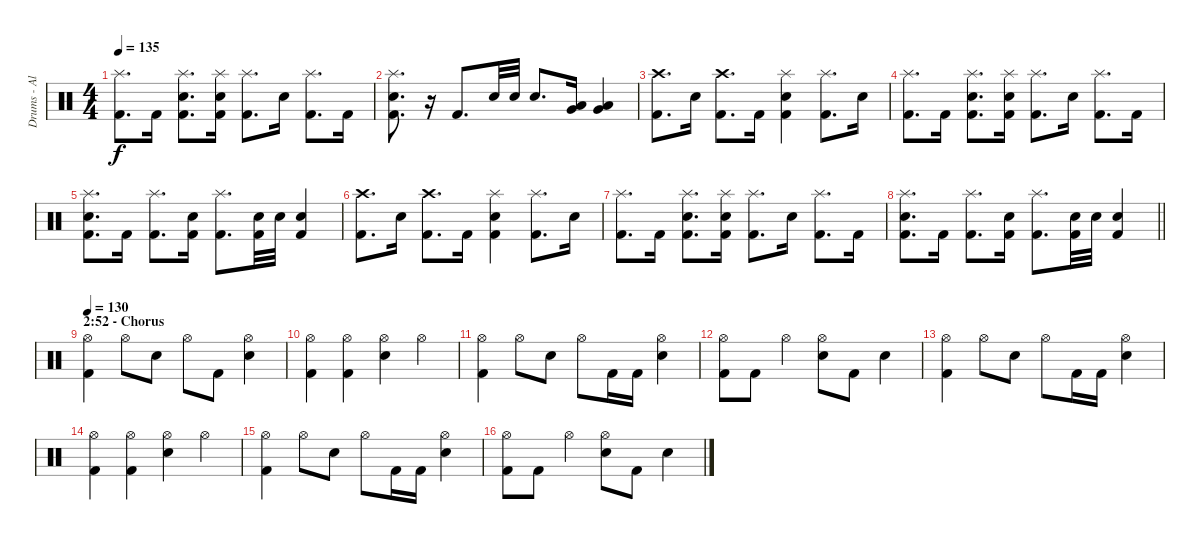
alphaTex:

\track ("Drums - Alex Wank" "Drums - Al") {instrument percussion}
\staff {score}
\articulation defaults
\ts (4 4)
\tempo 135
\clef neutral
\ks c
("Splash (hit)" "Kick (hit) 2").8{d dy f} "Kick (hit) 2".16 ("Splash (hit)" "Electric Snare (hit)" "Kick (hit) 2").8{d} ("Splash (hit)" "Electric Snare (hit)" "Kick (hit) 2").16 ("Splash (hit)" "Kick (hit) 2").8{d} "Electric Snare (hit)".16 ("Splash (hit)" "Kick (hit) 2").8{d} "Kick (hit) 2".16 |
("Splash (hit)" "Electric Snare (hit)" "Kick (hit) 2").8{d} r.16 "Kick (hit) 2".8{d} "Electric Snare (hit)".32 "Electric Snare (hit)".32 "Electric Snare (hit)".8{d} ("Very Low Tom (hit)" "Low Floor Tom (hit)").16 ("Very Low Tom (hit)" "Low Floor Tom (hit)").4 |
("Crash high (hit)" "Kick (hit) 2").8{d} "Electric Snare (hit)".16 ("Crash high (hit)" "Kick (hit) 2").8{d} "Kick (hit) 2".16 ("Splash (hit)" "Electric Snare (hit)" "Kick (hit) 2").4 ("Splash (hit)" "Kick (hit) 2").8{d} "Electric Snare (hit)".16 |
("Splash (hit)" "Kick (hit) 2").8{d} "Kick (hit) 2".16 ("Splash (hit)" "Electric Snare (hit)" "Kick (hit) 2").8{d} ("Splash (hit)" "Electric Snare (hit)" "Kick (hit) 2").16 ("Splash (hit)" "Kick (hit) 2").8{d} "Electric Snare (hit)".16 ("Splash (hit)" "Kick (hit) 2").8{d} "Kick (hit) 2".16 |
("Splash (hit)" "Electric Snare (hit)" "Kick (hit) 2").8{d} "Kick (hit) 2".16 ("Splash (hit)" "Kick (hit) 2").8{d} ("Electric Snare (hit)" "Kick (hit) 2").16 ("Splash (hit)" "Kick (hit) 2").8{d} ("Electric Snare (hit)" "Kick (hit) 2").32 "Electric Snare (hit)".32 ("Electric Snare (hit)" "Kick (hit) 2").4 |
("Crash high (hit)" "Kick (hit) 2").8{d} "Electric Snare (hit)".16 ("Crash high (hit)" "Kick (hit) 2").8{d} "Kick (hit) 2".16 ("Splash (hit)" "Electric Snare (hit)" "Kick (hit) 2").4 ("Splash (hit)" "Kick (hit) 2").8{d} "Electric Snare (hit)".16 |
("Splash (hit)" "Kick (hit) 2").8{d} "Kick (hit) 2".16 ("Splash (hit)" "Electric Snare (hit)" "Kick (hit) 2").8{d} ("Splash (hit)" "Electric Snare (hit)" "Kick (hit) 2").16 ("Splash (hit)" "Kick (hit) 2").8{d} "Electric Snare (hit)".16 ("Splash (hit)" "Kick (hit) 2").8{d} "Kick (hit) 2".16 |
\barLineRight lightlight
("Splash (hit)" "Electric Snare (hit)" "Kick (hit) 2").8{d} "Kick (hit) 2".16 ("Splash (hit)" "Kick (hit) 2").8{d} ("Electric Snare (hit)" "Kick (hit) 2").16 ("Splash (hit)" "Kick (hit) 2").8{d} ("Electric Snare (hit)" "Kick (hit) 2").32 "Electric Snare (hit)".32 ("Electric Snare (hit)" "Kick (hit) 2").4 |
\section ("" "2:52 - Chorus")
\tempo 130
("Hi-Hat (open)" "Kick (hit) 2").4 "Hi-Hat (open)".8 "Electric Snare (hit)".8 "Hi-Hat (open)".8 "Kick (hit) 2".8 ("Hi-Hat (open)" "Electric Snare (hit)").4 |
("Hi-Hat (open)" "Kick (hit) 2").4 ("Hi-Hat (open)" "Kick (hit) 2").4 ("Hi-Hat (open)" "Electric Snare (hit)").4 "Hi-Hat (open)".4 |
("Hi-Hat (open)" "Kick (hit) 2").4 "Hi-Hat (open)".8 "Electric Snare (hit)".8 "Hi-Hat (open)".8 "Kick (hit) 2".16 "Kick (hit) 2".16 ("Hi-Hat (open)" "Electric Snare (hit)").4 |
("Hi-Hat (open)" "Kick (hit) 2").8 "Kick (hit) 2".8 "Hi-Hat (open)".4 ("Hi-Hat (open)" "Electric Snare (hit)").8 "Kick (hit) 2".8 "Electric Snare (hit)".4 |
("Hi-Hat (open)" "Kick (hit) 2").4 "Hi-Hat (open)".8 "Electric Snare (hit)".8 "Hi-Hat (open)".8 "Kick (hit) 2".16 "Kick (hit) 2".16 ("Hi-Hat (open)" "Electric Snare (hit)").4 |
("Hi-Hat (open)" "Kick (hit) 2").4 ("Hi-Hat (open)" "Kick (hit) 2").4 ("Hi-Hat (open)" "Electric Snare (hit)").4 "Hi-Hat (open)".4 |
("Hi-Hat (open)" "Kick (hit) 2").4 "Hi-Hat (open)".8 "Electric Snare (hit)".8 "Hi-Hat (open)".8 "Kick (hit) 2".16 "Kick (hit) 2".16 ("Hi-Hat (open)" "Electric Snare (hit)").4 |
("Hi-Hat (open)" "Kick (hit) 2").8 "Kick (hit) 2".8 "Hi-Hat (open)".4 ("Hi-Hat (open)" "Electric Snare (hit)").8 "Kick (hit) 2".8 "Electric Snare (hit)".4
